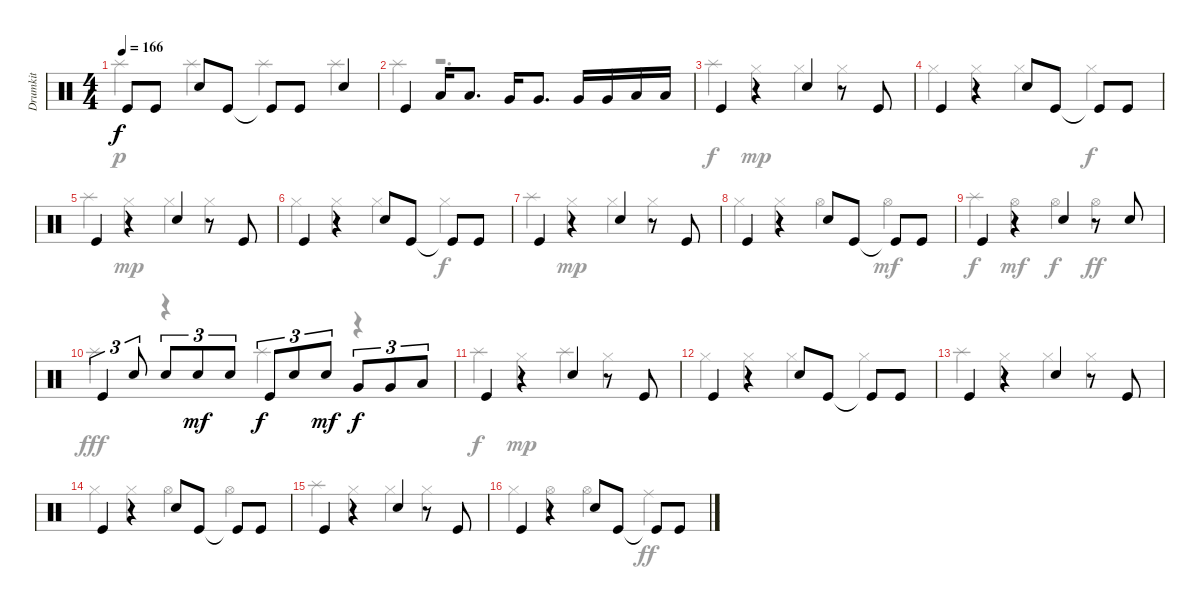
\track ("Drumkit" "Drumkit") {instrument percussion}
\staff {score}
\articulation defaults
\voice
\ts (4 4)
\tempo 166
\clef neutral
\ks c "Kick (hit)".8{dy f} "Kick (hit)".8 "Snare (hit) 2".8 "Kick (hit)".8 "Kick (hit)"{t}.8 "Kick (hit)".8 "Snare (hit) 2".4
|
"Kick (hit)".4 "Low Tom (hit)".16 "Low Tom (hit)".8{d} "Very Low Tom (hit)".16 "Very Low Tom (hit)".8{d} "Very Low Tom (hit)".16 "Very Low Tom (hit)".16 "Low Floor Tom (hit)".16 "Low Floor Tom (hit)".16 |
"Kick (hit)".4 r.4 "Snare (hit) 2".4 r.8 "Kick (hit)".8 |
"Kick (hit)".4 r.4 "Snare (hit) 2".8 "Kick (hit)".8 "Kick (hit)"{t}.8 "Kick (hit)".8 |
"Kick (hit)".4 r.4 "Snare (hit) 2".4 r.8 "Kick (hit)".8 |
"Kick (hit)".4 r.4 "Snare (hit) 2".8 "Kick (hit)".8 "Kick (hit)"{t}.8 "Kick (hit)".8 |
"Kick (hit)".4 r.4 "Snare (hit) 2".4 r.8 "Kick (hit)".8 |
"Kick (hit)".4 r.4 "Snare (hit) 2".8 "Kick (hit)".8 "Kick (hit)"{t}.8 "Kick (hit)".8 |
"Kick (hit)".4 r.4 "Snare (hit) 2".4 r.8 "Snare (hit) 2".8 |
"Kick (hit)".4{tu (3 2)} "Snare (hit) 2".8{tu (3 2)} "Snare (hit) 2".8{tu (3 2)} "Snare (hit) 2".8{tu (3 2) dy mf} "Snare (hit) 2".8{tu (3 2)} "Kick (hit)".8{tu (3 2) dy f} "Snare (hit) 2".8{tu (3 2)} "Snare (hit) 2".8{tu (3 2) dy mf} "Very Low Tom (hit)".8{tu (3 2) dy f} "Very Low Tom (hit)".8{tu (3 2)} "Low Floor Tom (hit)".8{tu (3 2)} |
"Kick (hit)".4 r.4 "Snare (hit) 2".4 r.8 "Kick (hit)".8 |
"Kick (hit)".4 r.4 "Snare (hit) 2".8 "Kick (hit)".8 "Kick (hit)"{t}.8 "Kick (hit)".8 |
"Kick (hit)".4 r.4 "Snare (hit) 2".4 r.8 "Kick (hit)".8 |
"Kick (hit)".4 r.4 "Snare (hit) 2".8 "Kick (hit)".8 "Kick (hit)"{t}.8 "Kick (hit)".8 |
"Kick (hit)".4 r.4 "Snare (hit) 2".4 r.8 "Kick (hit)".8 |
"Kick (hit)".4 r.4 "Snare (hit) 2".8 "Kick (hit)".8 "Kick (hit)"{t}.8 "Kick (hit)".8
\voice
\clef neutral
\ottava regular
\simile none
\ks c "Splash (hit)".4{dy p} "Splash (hit)".4 "Splash (hit)".4 "Splash (hit)".4
|
"Splash (hit)".4 r.2{d} |
"Splash (hit)".4{dy f} "Hi-Hat (closed)".4{dy mp} "Hi-Hat (closed)".4 "Hi-Hat (closed)".4 |
"Hi-Hat (closed)".4 "Hi-Hat (closed)".4 "Hi-Hat (closed)".4 "Hi-Hat (closed)".4{dy f} |
"Splash (hit)".4 "Hi-Hat (closed)".4{dy mp} "Hi-Hat (closed)".4 "Hi-Hat (closed)".4 |
"Hi-Hat (closed)".4 "Hi-Hat (closed)".4 "Hi-Hat (closed)".4 "Hi-Hat (closed)".4{dy f} |
"Splash (hit)".4 "Hi-Hat (closed)".4{dy mp} "Hi-Hat (closed)".4 "Hi-Hat (closed)".4 |
"Hi-Hat (closed)".4 "Hi-Hat (closed)".4 "Hi-Hat (open)".4 "Hi-Hat (open)".4{dy mf} |
"Splash (hit)".4{dy f} "Hi-Hat (open)".4{dy mf} "Hi-Hat (open)".4{dy f} "Hi-Hat (open)".4{dy ff} |
"Splash (hit)".4{dy fff} r.4 "Splash (hit)".4 r.4 |
"Splash (hit)".4{dy f} "Hi-Hat (closed)".4{dy mp} "Splash (hit)".4 "Hi-Hat (closed)".4 |
"Hi-Hat (closed)".4 "Hi-Hat (closed)".4 "Hi-Hat (closed)".4 "Hi-Hat (closed)".4 |
"Splash (hit)".4 "Hi-Hat (closed)".4 "Hi-Hat (closed)".4 "Hi-Hat (closed)".4 |
"Hi-Hat (closed)".4 "Hi-Hat (closed)".4 "Hi-Hat (open)".4 "Hi-Hat (open)".4 |
"Splash (hit)".4 "Hi-Hat (closed)".4 "Hi-Hat (closed)".4 "Hi-Hat (closed)".4 |
"Hi-Hat (closed)".4 "Hi-Hat (open)".4 "Hi-Hat (open)".4 "Ride (middle)".4{dy ff}
